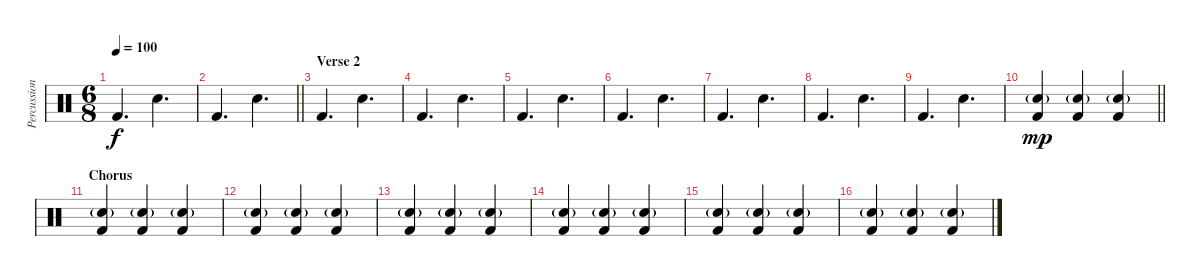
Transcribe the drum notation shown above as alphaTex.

\track ("Percussion" "Percussion") {instrument percussion}
\staff {score}
\articulation defaults
\ts (6 8)
\tempo 100
\clef neutral
\ks c "Kick (hit) 2".4{d dy f} "Snare (hit) 2".4{d}
|
\barLineRight lightlight "Kick (hit) 2".4{d} "Snare (hit) 2".4{d}
|
\section ("" "Verse 2")
"Kick (hit) 2".4{d} "Snare (hit) 2".4{d} |
"Kick (hit) 2".4{d} "Snare (hit) 2".4{d} |
"Kick (hit) 2".4{d} "Snare (hit) 2".4{d} |
"Kick (hit) 2".4{d} "Snare (hit) 2".4{d} |
"Kick (hit) 2".4{d} "Snare (hit) 2".4{d} |
"Kick (hit) 2".4{d} "Snare (hit) 2".4{d} |
"Kick (hit) 2".4{d} "Snare (hit) 2".4{d} |
\barLineRight lightlight
("Snare (hit) 2"{g} "Kick (hit) 2").4{dy mp} ("Snare (hit) 2"{g} "Kick (hit) 2").4 ("Snare (hit) 2"{g} "Kick (hit) 2").4 |
\section ("" "Chorus")
("Snare (hit) 2"{g} "Kick (hit) 2").4 ("Snare (hit) 2"{g} "Kick (hit) 2").4 ("Snare (hit) 2"{g} "Kick (hit) 2").4 |
("Snare (hit) 2"{g} "Kick (hit) 2").4 ("Snare (hit) 2"{g} "Kick (hit) 2").4 ("Snare (hit) 2"{g} "Kick (hit) 2").4 |
("Snare (hit) 2"{g} "Kick (hit) 2").4 ("Snare (hit) 2"{g} "Kick (hit) 2").4 ("Snare (hit) 2"{g} "Kick (hit) 2").4 |
("Snare (hit) 2"{g} "Kick (hit) 2").4 ("Snare (hit) 2"{g} "Kick (hit) 2").4 ("Snare (hit) 2"{g} "Kick (hit) 2").4 |
("Snare (hit) 2"{g} "Kick (hit) 2").4 ("Snare (hit) 2"{g} "Kick (hit) 2").4 ("Snare (hit) 2"{g} "Kick (hit) 2").4 |
("Snare (hit) 2"{g} "Kick (hit) 2").4 ("Snare (hit) 2"{g} "Kick (hit) 2").4 ("Snare (hit) 2"{g} "Kick (hit) 2").4
